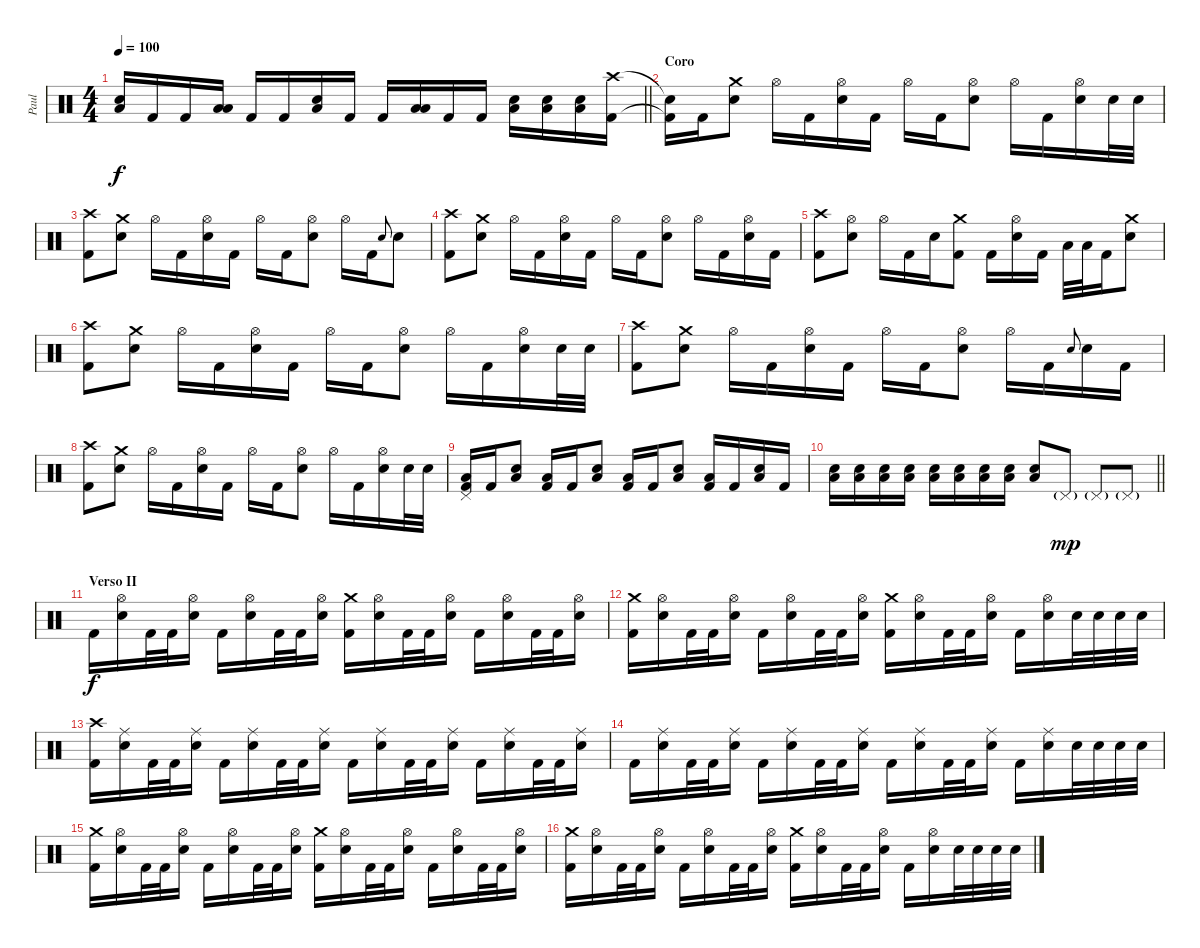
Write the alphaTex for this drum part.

\track ("Paul" "Paul") {instrument percussion}
\staff
\articulation defaults
\ts (4 4)
\tempo 100
\clef neutral
\barLineRight lightlight
\ks c
("Electric Snare (hit)" "Low Floor Tom (hit)").16{dy f} "Kick (hit) 2".16 "Kick (hit) 2".16 ("Low Tom (hit)" "Low Floor Tom (hit)").16 "Kick (hit) 2".16 "Kick (hit) 2".16 ("Electric Snare (hit)" "Low Floor Tom (hit)").16 "Kick (hit) 2".16 "Kick (hit) 2".16 ("Low Tom (hit)" "Low Floor Tom (hit)").16 "Kick (hit) 2".16 "Kick (hit) 2".16 ("Electric Snare (hit)" "Low Floor Tom (hit)").16 ("Electric Snare (hit)" "Low Floor Tom (hit)").16 ("Electric Snare (hit)" "Low Floor Tom (hit)").16 ("Crash high (hit)" "Kick (hit) 2").16 |
\section ("" "Coro")
("Snare (hit)"{t} "Kick (hit) 2"{t}).16 "Kick (hit) 2".16 ("Crash medium (hit)" "Electric Snare (hit)").8 "Hi-Hat (open)".16 "Kick (hit) 2".16 ("Hi-Hat (open)" "Electric Snare (hit)").16 "Kick (hit) 2".16 "Hi-Hat (open)".16 "Kick (hit) 2".16 ("Hi-Hat (open)" "Electric Snare (hit)").8 "Hi-Hat (open)".16 "Kick (hit) 2".16 ("Hi-Hat (open)" "Electric Snare (hit)").16 "Electric Snare (hit)".32 "Electric Snare (hit)".32 |
("Crash high (hit)" "Kick (hit) 2").8 ("Crash medium (hit)" "Electric Snare (hit)").8 "Hi-Hat (open)".16 "Kick (hit) 2".16 ("Hi-Hat (open)" "Electric Snare (hit)").16 "Kick (hit) 2".16 "Hi-Hat (open)".16 "Kick (hit) 2".16 ("Hi-Hat (open)" "Electric Snare (hit)").8 "Hi-Hat (open)".16 "Kick (hit) 2".16 "Electric Snare (hit)".8{gr onbeat} "Electric Snare (hit)".8 |
("Crash high (hit)" "Kick (hit) 2").8 ("Crash medium (hit)" "Electric Snare (hit)").8 "Hi-Hat (open)".16 "Kick (hit) 2".16 ("Hi-Hat (open)" "Electric Snare (hit)").16 "Kick (hit) 2".16 "Hi-Hat (open)".16 "Kick (hit) 2".16 ("Hi-Hat (open)" "Electric Snare (hit)").8 "Hi-Hat (open)".16 "Kick (hit) 2".16 ("Hi-Hat (open)" "Electric Snare (hit)").16 "Kick (hit) 2".16 |
("Crash high (hit)" "Kick (hit) 2").8 ("Hi-Hat (open)" "Electric Snare (hit)").8 "Hi-Hat (open)".16 "Kick (hit) 2".16 "Electric Snare (hit)".16 ("Crash medium (hit)" "Kick (hit) 2").8 "Kick (hit) 2".16 ("Hi-Hat (open)" "Electric Snare (hit)").16 "Kick (hit) 2".16 "Low Tom (hit)".32 "Low Tom (hit)".32 "Kick (hit) 2".16 ("Crash medium (hit)" "Electric Snare (hit)").8 |
("Crash high (hit)" "Kick (hit) 2").8 ("Crash medium (hit)" "Electric Snare (hit)").8 "Hi-Hat (open)".16 "Kick (hit) 2".16 ("Hi-Hat (open)" "Electric Snare (hit)").16 "Kick (hit) 2".16 "Hi-Hat (open)".16 "Kick (hit) 2".16 ("Hi-Hat (open)" "Electric Snare (hit)").8 "Hi-Hat (open)".16 "Kick (hit) 2".16 ("Hi-Hat (open)" "Electric Snare (hit)").16 "Electric Snare (hit)".32 "Electric Snare (hit)".32 |
("Crash high (hit)" "Kick (hit) 2").8 ("Crash medium (hit)" "Electric Snare (hit)").8 "Hi-Hat (open)".16 "Kick (hit) 2".16 ("Hi-Hat (open)" "Electric Snare (hit)").16 "Kick (hit) 2".16 "Hi-Hat (open)".16 "Kick (hit) 2".16 ("Hi-Hat (open)" "Electric Snare (hit)").8 "Hi-Hat (open)".16 "Kick (hit) 2".16 "Electric Snare (hit)".8{gr onbeat} "Electric Snare (hit)".16 "Kick (hit) 2".16 |
("Crash high (hit)" "Kick (hit) 2").8 ("Crash medium (hit)" "Electric Snare (hit)").8 "Hi-Hat (open)".16 "Kick (hit) 2".16 ("Hi-Hat (open)" "Electric Snare (hit)").16 "Kick (hit) 2".16 "Hi-Hat (open)".16 "Kick (hit) 2".16 ("Hi-Hat (open)" "Electric Snare (hit)").8 "Hi-Hat (open)".16 "Kick (hit) 2".16 ("Hi-Hat (open)" "Electric Snare (hit)").16 "Electric Snare (hit)".32 "Electric Snare (hit)".32 |
("Pedal Hi-Hat (hit)" "Low Floor Tom (hit)" "Kick (hit) 2").16 "Kick (hit) 2".16 ("Electric Snare (hit)" "Low Floor Tom (hit)").8 ("Low Floor Tom (hit)" "Kick (hit) 2").16 "Kick (hit) 2".16 ("Electric Snare (hit)" "Low Floor Tom (hit)").8 ("Low Floor Tom (hit)" "Kick (hit) 2").16 "Kick (hit) 2".16 ("Electric Snare (hit)" "Low Floor Tom (hit)").8 ("Low Floor Tom (hit)" "Kick (hit) 2").16 "Kick (hit) 2".16 ("Electric Snare (hit)" "Low Floor Tom (hit)").16 "Kick (hit) 2".16 |
\barLineRight lightlight
("Electric Snare (hit)" "Low Floor Tom (hit)").16 ("Electric Snare (hit)" "Low Floor Tom (hit)").16 ("Electric Snare (hit)" "Low Floor Tom (hit)").16 ("Electric Snare (hit)" "Low Floor Tom (hit)").16 ("Electric Snare (hit)" "Low Floor Tom (hit)").16 ("Electric Snare (hit)" "Low Floor Tom (hit)").16 ("Electric Snare (hit)" "Low Floor Tom (hit)").16 ("Electric Snare (hit)" "Low Floor Tom (hit)").16 ("Electric Snare (hit)" "Low Floor Tom (hit)").8 "Pedal Hi-Hat (hit)"{g}.8{dy mp} "Pedal Hi-Hat (hit)"{g}.8 "Pedal Hi-Hat (hit)"{g}.8 |
\section ("" "Verso II")
"Kick (hit) 2".16{dy f} ("Hi-Hat (open)" "Electric Snare (hit)").16 "Kick (hit) 2".32 "Kick (hit) 2".32 ("Hi-Hat (open)" "Electric Snare (hit)").16 "Kick (hit) 2".16 ("Hi-Hat (open)" "Electric Snare (hit)").16 "Kick (hit) 2".32 "Kick (hit) 2".32 ("Hi-Hat (open)" "Electric Snare (hit)").16 ("Crash medium (hit)" "Kick (hit) 2").16 ("Hi-Hat (open)" "Electric Snare (hit)").16 "Kick (hit) 2".32 "Kick (hit) 2".32 ("Hi-Hat (open)" "Electric Snare (hit)").16 "Kick (hit) 2".16 ("Hi-Hat (open)" "Electric Snare (hit)").16 "Kick (hit) 2".32 "Kick (hit) 2".32 ("Hi-Hat (open)" "Electric Snare (hit)").16 |
("Crash medium (hit)" "Kick (hit) 2").16 ("Hi-Hat (open)" "Electric Snare (hit)").16 "Kick (hit) 2".32 "Kick (hit) 2".32 ("Hi-Hat (open)" "Electric Snare (hit)").16 "Kick (hit) 2".16 ("Hi-Hat (open)" "Electric Snare (hit)").16 "Kick (hit) 2".32 "Kick (hit) 2".32 ("Hi-Hat (open)" "Electric Snare (hit)").16 ("Crash medium (hit)" "Kick (hit) 2").16 ("Hi-Hat (open)" "Electric Snare (hit)").16 "Kick (hit) 2".32 "Kick (hit) 2".32 ("Hi-Hat (open)" "Electric Snare (hit)").16 "Kick (hit) 2".16 ("Hi-Hat (open)" "Electric Snare (hit)").16 "Electric Snare (hit)".32 "Electric Snare (hit)".32 "Electric Snare (hit)".32 "Electric Snare (hit)".32 |
("Crash high (hit)" "Kick (hit) 2").16 ("Ride (middle)" "Electric Snare (hit)").16 "Kick (hit) 2".32 "Kick (hit) 2".32 ("Ride (middle)" "Electric Snare (hit)").16 "Kick (hit) 2".16 ("Ride (middle)" "Electric Snare (hit)").16 "Kick (hit) 2".32 "Kick (hit) 2".32 ("Ride (middle)" "Electric Snare (hit)").16 "Kick (hit) 2".16 ("Ride (middle)" "Electric Snare (hit)").16 "Kick (hit) 2".32 "Kick (hit) 2".32 ("Ride (middle)" "Electric Snare (hit)").16 "Kick (hit) 2".16 ("Ride (middle)" "Electric Snare (hit)").16 "Kick (hit) 2".32 "Kick (hit) 2".32 ("Ride (middle)" "Electric Snare (hit)").16 |
"Kick (hit) 2".16 ("Ride (middle)" "Electric Snare (hit)").16 "Kick (hit) 2".32 "Kick (hit) 2".32 ("Ride (middle)" "Electric Snare (hit)").16 "Kick (hit) 2".16 ("Ride (middle)" "Electric Snare (hit)").16 "Kick (hit) 2".32 "Kick (hit) 2".32 ("Ride (middle)" "Electric Snare (hit)").16 "Kick (hit) 2".16 ("Ride (middle)" "Electric Snare (hit)").16 "Kick (hit) 2".32 "Kick (hit) 2".32 ("Ride (middle)" "Electric Snare (hit)").16 "Kick (hit) 2".16 ("Ride (middle)" "Electric Snare (hit)").16 "Electric Snare (hit)".32 "Electric Snare (hit)".32 "Electric Snare (hit)".32 "Electric Snare (hit)".32 |
("Crash medium (hit)" "Kick (hit) 2").16 ("Hi-Hat (open)" "Electric Snare (hit)").16 "Kick (hit) 2".32 "Kick (hit) 2".32 ("Hi-Hat (open)" "Electric Snare (hit)").16 "Kick (hit) 2".16 ("Hi-Hat (open)" "Electric Snare (hit)").16 "Kick (hit) 2".32 "Kick (hit) 2".32 ("Hi-Hat (open)" "Electric Snare (hit)").16 ("Crash medium (hit)" "Kick (hit) 2").16 ("Hi-Hat (open)" "Electric Snare (hit)").16 "Kick (hit) 2".32 "Kick (hit) 2".32 ("Hi-Hat (open)" "Electric Snare (hit)").16 "Kick (hit) 2".16 ("Hi-Hat (open)" "Electric Snare (hit)").16 "Kick (hit) 2".32 "Kick (hit) 2".32 ("Hi-Hat (open)" "Electric Snare (hit)").16 |
("Crash medium (hit)" "Kick (hit) 2").16 ("Hi-Hat (open)" "Electric Snare (hit)").16 "Kick (hit) 2".32 "Kick (hit) 2".32 ("Hi-Hat (open)" "Electric Snare (hit)").16 "Kick (hit) 2".16 ("Hi-Hat (open)" "Electric Snare (hit)").16 "Kick (hit) 2".32 "Kick (hit) 2".32 ("Hi-Hat (open)" "Electric Snare (hit)").16 ("Crash medium (hit)" "Kick (hit) 2").16 ("Hi-Hat (open)" "Electric Snare (hit)").16 "Kick (hit) 2".32 "Kick (hit) 2".32 ("Hi-Hat (open)" "Electric Snare (hit)").16 "Kick (hit) 2".16 ("Hi-Hat (open)" "Electric Snare (hit)").16 "Electric Snare (hit)".32 "Electric Snare (hit)".32 "Electric Snare (hit)".32 "Electric Snare (hit)".32
